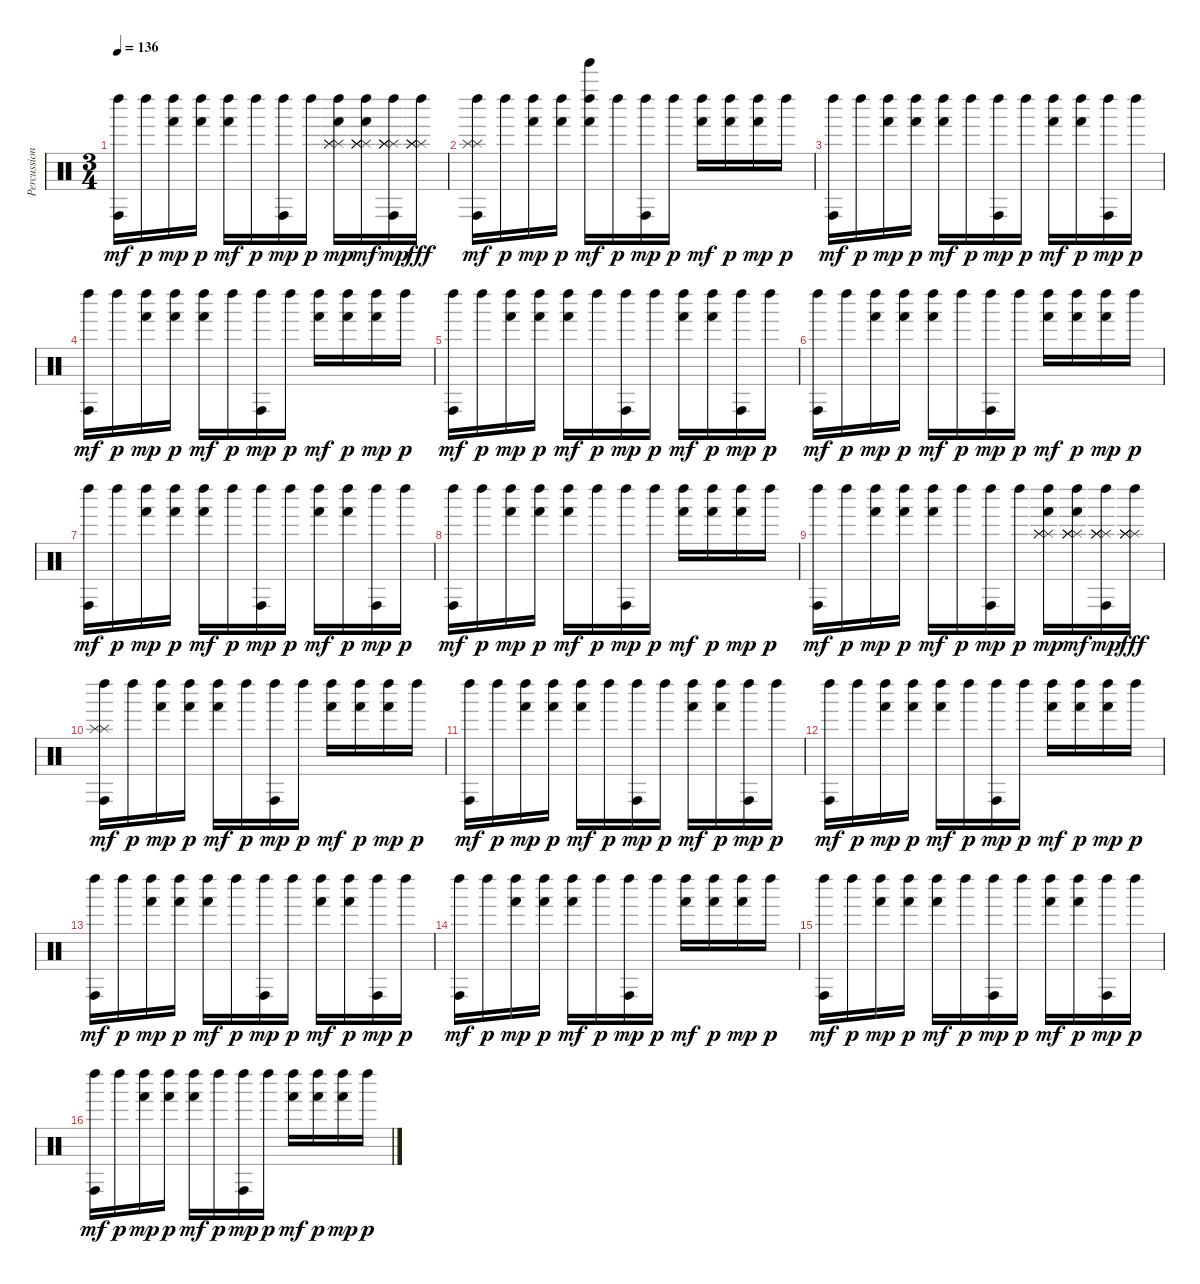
\track ("Percussion" "Percussion") {instrument percussion}
\staff {score}
\articulation defaults
\ts (3 4)
\tempo 136
\clef neutral
\ks c
("Conga high (hit)" "Left Maraca (hit)").16{dy mf} "Left Maraca (hit)".16{dy p} ("Hand (hit)" "Left Maraca (hit)").16{dy mp} ("Hand (hit)" "Left Maraca (hit)").16{dy p} ("Hand (hit)" "Left Maraca (hit)").16{dy mf} "Left Maraca (hit)".16{dy p} ("Conga high (hit)" "Left Maraca (hit)").16{dy mp} "Left Maraca (hit)".16{dy p} ("Hand (hit)" "Splash (hit)" "Left Maraca (hit)" "Splash (hit)" "Splash (hit)").16{dy mp} ("Splash (hit)" "Hand (hit)" "Splash (hit)" "Left Maraca (hit)" "Splash (hit)" "Splash (hit)").16{dy mf} ("Splash (hit)" "Conga high (hit)" "Splash (hit)" "Left Maraca (hit)" "Splash (hit)" "Splash (hit)").16{dy mp} ("Splash (hit)" "Splash (hit)" "Left Maraca (hit)" "Splash (hit)" "Splash (hit)").16{dy fff} |
("Splash (hit)" "Splash (hit)" "Conga high (hit)" "Left Maraca (hit)").16{dy mf} "Left Maraca (hit)".16{dy p} ("Hand (hit)" "Left Maraca (hit)").16{dy mp} ("Hand (hit)" "Left Maraca (hit)").16{dy p} ("Hand (hit)" "Tinkle Bell (hit)" "Left Maraca (hit)").16{dy mf} "Left Maraca (hit)".16{dy p} ("Conga high (hit)" "Left Maraca (hit)").16{dy mp} "Left Maraca (hit)".16{dy p} ("Hand (hit)" "Left Maraca (hit)").16{dy mf} ("Hand (hit)" "Left Maraca (hit)").16{dy p} ("Hand (hit)" "Left Maraca (hit)").16{dy mp} "Left Maraca (hit)".16{dy p} |
("Conga high (hit)" "Left Maraca (hit)").16{dy mf} "Left Maraca (hit)".16{dy p} ("Hand (hit)" "Left Maraca (hit)").16{dy mp} ("Hand (hit)" "Left Maraca (hit)").16{dy p} ("Hand (hit)" "Left Maraca (hit)").16{dy mf} "Left Maraca (hit)".16{dy p} ("Conga high (hit)" "Left Maraca (hit)").16{dy mp} "Left Maraca (hit)".16{dy p} ("Hand (hit)" "Left Maraca (hit)").16{dy mf} ("Hand (hit)" "Left Maraca (hit)").16{dy p} ("Conga high (hit)" "Left Maraca (hit)").16{dy mp} "Left Maraca (hit)".16{dy p} |
("Conga high (hit)" "Left Maraca (hit)").16{dy mf} "Left Maraca (hit)".16{dy p} ("Hand (hit)" "Left Maraca (hit)").16{dy mp} ("Hand (hit)" "Left Maraca (hit)").16{dy p} ("Hand (hit)" "Left Maraca (hit)").16{dy mf} "Left Maraca (hit)".16{dy p} ("Conga high (hit)" "Left Maraca (hit)").16{dy mp} "Left Maraca (hit)".16{dy p} ("Hand (hit)" "Left Maraca (hit)").16{dy mf} ("Hand (hit)" "Left Maraca (hit)").16{dy p} ("Hand (hit)" "Left Maraca (hit)").16{dy mp} "Left Maraca (hit)".16{dy p} |
("Conga high (hit)" "Left Maraca (hit)").16{dy mf} "Left Maraca (hit)".16{dy p} ("Hand (hit)" "Left Maraca (hit)").16{dy mp} ("Hand (hit)" "Left Maraca (hit)").16{dy p} ("Hand (hit)" "Left Maraca (hit)").16{dy mf} "Left Maraca (hit)".16{dy p} ("Conga high (hit)" "Left Maraca (hit)").16{dy mp} "Left Maraca (hit)".16{dy p} ("Hand (hit)" "Left Maraca (hit)").16{dy mf} ("Hand (hit)" "Left Maraca (hit)").16{dy p} ("Conga high (hit)" "Left Maraca (hit)").16{dy mp} "Left Maraca (hit)".16{dy p} |
("Conga high (hit)" "Left Maraca (hit)").16{dy mf} "Left Maraca (hit)".16{dy p} ("Hand (hit)" "Left Maraca (hit)").16{dy mp} ("Hand (hit)" "Left Maraca (hit)").16{dy p} ("Hand (hit)" "Left Maraca (hit)").16{dy mf} "Left Maraca (hit)".16{dy p} ("Conga high (hit)" "Left Maraca (hit)").16{dy mp} "Left Maraca (hit)".16{dy p} ("Hand (hit)" "Left Maraca (hit)").16{dy mf} ("Hand (hit)" "Left Maraca (hit)").16{dy p} ("Hand (hit)" "Left Maraca (hit)").16{dy mp} "Left Maraca (hit)".16{dy p} |
("Conga high (hit)" "Left Maraca (hit)").16{dy mf} "Left Maraca (hit)".16{dy p} ("Hand (hit)" "Left Maraca (hit)").16{dy mp} ("Hand (hit)" "Left Maraca (hit)").16{dy p} ("Hand (hit)" "Left Maraca (hit)").16{dy mf} "Left Maraca (hit)".16{dy p} ("Conga high (hit)" "Left Maraca (hit)").16{dy mp} "Left Maraca (hit)".16{dy p} ("Hand (hit)" "Left Maraca (hit)").16{dy mf} ("Hand (hit)" "Left Maraca (hit)").16{dy p} ("Conga high (hit)" "Left Maraca (hit)").16{dy mp} "Left Maraca (hit)".16{dy p} |
("Conga high (hit)" "Left Maraca (hit)").16{dy mf} "Left Maraca (hit)".16{dy p} ("Hand (hit)" "Left Maraca (hit)").16{dy mp} ("Hand (hit)" "Left Maraca (hit)").16{dy p} ("Hand (hit)" "Left Maraca (hit)").16{dy mf} "Left Maraca (hit)".16{dy p} ("Conga high (hit)" "Left Maraca (hit)").16{dy mp} "Left Maraca (hit)".16{dy p} ("Hand (hit)" "Left Maraca (hit)").16{dy mf} ("Hand (hit)" "Left Maraca (hit)").16{dy p} ("Hand (hit)" "Left Maraca (hit)").16{dy mp} "Left Maraca (hit)".16{dy p} |
("Conga high (hit)" "Left Maraca (hit)").16{dy mf} "Left Maraca (hit)".16{dy p} ("Hand (hit)" "Left Maraca (hit)").16{dy mp} ("Hand (hit)" "Left Maraca (hit)").16{dy p} ("Hand (hit)" "Left Maraca (hit)").16{dy mf} "Left Maraca (hit)".16{dy p} ("Conga high (hit)" "Left Maraca (hit)").16{dy mp} "Left Maraca (hit)".16{dy p} ("Hand (hit)" "Splash (hit)" "Left Maraca (hit)" "Splash (hit)" "Splash (hit)").16{dy mp} ("Splash (hit)" "Hand (hit)" "Splash (hit)" "Left Maraca (hit)" "Splash (hit)" "Splash (hit)").16{dy mf} ("Splash (hit)" "Conga high (hit)" "Splash (hit)" "Left Maraca (hit)" "Splash (hit)" "Splash (hit)").16{dy mp} ("Splash (hit)" "Splash (hit)" "Left Maraca (hit)" "Splash (hit)" "Splash (hit)").16{dy fff} |
("Splash (hit)" "Splash (hit)" "Conga high (hit)" "Left Maraca (hit)").16{dy mf} "Left Maraca (hit)".16{dy p} ("Hand (hit)" "Left Maraca (hit)").16{dy mp} ("Hand (hit)" "Left Maraca (hit)").16{dy p} ("Hand (hit)" "Left Maraca (hit)").16{dy mf} "Left Maraca (hit)".16{dy p} ("Conga high (hit)" "Left Maraca (hit)").16{dy mp} "Left Maraca (hit)".16{dy p} ("Hand (hit)" "Left Maraca (hit)").16{dy mf} ("Hand (hit)" "Left Maraca (hit)").16{dy p} ("Hand (hit)" "Left Maraca (hit)").16{dy mp} "Left Maraca (hit)".16{dy p} |
("Conga high (hit)" "Left Maraca (hit)").16{dy mf} "Left Maraca (hit)".16{dy p} ("Hand (hit)" "Left Maraca (hit)").16{dy mp} ("Hand (hit)" "Left Maraca (hit)").16{dy p} ("Hand (hit)" "Left Maraca (hit)").16{dy mf} "Left Maraca (hit)".16{dy p} ("Conga high (hit)" "Left Maraca (hit)").16{dy mp} "Left Maraca (hit)".16{dy p} ("Hand (hit)" "Left Maraca (hit)").16{dy mf} ("Hand (hit)" "Left Maraca (hit)").16{dy p} ("Conga high (hit)" "Left Maraca (hit)").16{dy mp} "Left Maraca (hit)".16{dy p} |
("Conga high (hit)" "Left Maraca (hit)").16{dy mf} "Left Maraca (hit)".16{dy p} ("Hand (hit)" "Left Maraca (hit)").16{dy mp} ("Hand (hit)" "Left Maraca (hit)").16{dy p} ("Hand (hit)" "Left Maraca (hit)").16{dy mf} "Left Maraca (hit)".16{dy p} ("Conga high (hit)" "Left Maraca (hit)").16{dy mp} "Left Maraca (hit)".16{dy p} ("Hand (hit)" "Left Maraca (hit)").16{dy mf} ("Hand (hit)" "Left Maraca (hit)").16{dy p} ("Hand (hit)" "Left Maraca (hit)").16{dy mp} "Left Maraca (hit)".16{dy p} |
("Conga high (hit)" "Left Maraca (hit)").16{dy mf} "Left Maraca (hit)".16{dy p} ("Hand (hit)" "Left Maraca (hit)").16{dy mp} ("Hand (hit)" "Left Maraca (hit)").16{dy p} ("Hand (hit)" "Left Maraca (hit)").16{dy mf} "Left Maraca (hit)".16{dy p} ("Conga high (hit)" "Left Maraca (hit)").16{dy mp} "Left Maraca (hit)".16{dy p} ("Hand (hit)" "Left Maraca (hit)").16{dy mf} ("Hand (hit)" "Left Maraca (hit)").16{dy p} ("Conga high (hit)" "Left Maraca (hit)").16{dy mp} "Left Maraca (hit)".16{dy p} |
("Conga high (hit)" "Left Maraca (hit)").16{dy mf} "Left Maraca (hit)".16{dy p} ("Hand (hit)" "Left Maraca (hit)").16{dy mp} ("Hand (hit)" "Left Maraca (hit)").16{dy p} ("Hand (hit)" "Left Maraca (hit)").16{dy mf} "Left Maraca (hit)".16{dy p} ("Conga high (hit)" "Left Maraca (hit)").16{dy mp} "Left Maraca (hit)".16{dy p} ("Hand (hit)" "Left Maraca (hit)").16{dy mf} ("Hand (hit)" "Left Maraca (hit)").16{dy p} ("Hand (hit)" "Left Maraca (hit)").16{dy mp} "Left Maraca (hit)".16{dy p} |
("Conga high (hit)" "Left Maraca (hit)").16{dy mf} "Left Maraca (hit)".16{dy p} ("Hand (hit)" "Left Maraca (hit)").16{dy mp} ("Hand (hit)" "Left Maraca (hit)").16{dy p} ("Hand (hit)" "Left Maraca (hit)").16{dy mf} "Left Maraca (hit)".16{dy p} ("Conga high (hit)" "Left Maraca (hit)").16{dy mp} "Left Maraca (hit)".16{dy p} ("Hand (hit)" "Left Maraca (hit)").16{dy mf} ("Hand (hit)" "Left Maraca (hit)").16{dy p} ("Conga high (hit)" "Left Maraca (hit)").16{dy mp} "Left Maraca (hit)".16{dy p} |
("Conga high (hit)" "Left Maraca (hit)").16{dy mf} "Left Maraca (hit)".16{dy p} ("Hand (hit)" "Left Maraca (hit)").16{dy mp} ("Hand (hit)" "Left Maraca (hit)").16{dy p} ("Hand (hit)" "Left Maraca (hit)").16{dy mf} "Left Maraca (hit)".16{dy p} ("Conga high (hit)" "Left Maraca (hit)").16{dy mp} "Left Maraca (hit)".16{dy p} ("Hand (hit)" "Left Maraca (hit)").16{dy mf} ("Hand (hit)" "Left Maraca (hit)").16{dy p} ("Hand (hit)" "Left Maraca (hit)").16{dy mp} "Left Maraca (hit)".16{dy p}
